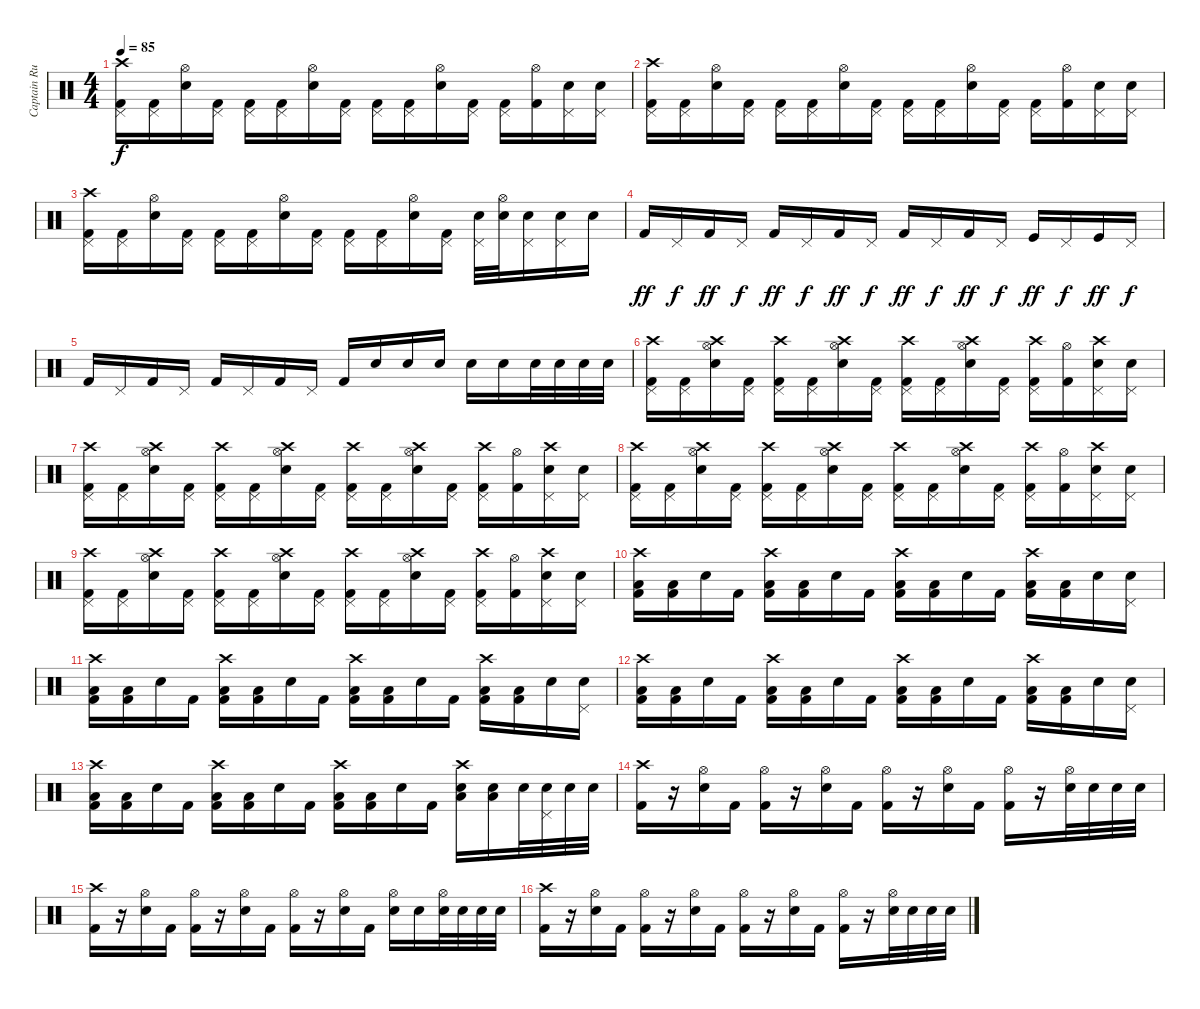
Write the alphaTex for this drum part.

\track ("Captain Rudabar/Rob Dog" "Captain Ru") {instrument percussion}
\staff {score}
\articulation defaults
\ts (4 4)
\tempo 85
\clef neutral
\ks c
("Crash high (hit)" "Pedal Hi-Hat (hit)" "Kick (hit) 2").16{dy f} ("Pedal Hi-Hat (hit)" "Kick (hit) 2").16 ("Hi-Hat (open)" "Electric Snare (hit)").16 ("Pedal Hi-Hat (hit)" "Kick (hit) 2").16 ("Pedal Hi-Hat (hit)" "Kick (hit) 2").16 ("Pedal Hi-Hat (hit)" "Kick (hit) 2").16 ("Hi-Hat (open)" "Electric Snare (hit)").16 ("Pedal Hi-Hat (hit)" "Kick (hit) 2").16 ("Pedal Hi-Hat (hit)" "Kick (hit) 2").16 ("Pedal Hi-Hat (hit)" "Kick (hit) 2").16 ("Hi-Hat (open)" "Electric Snare (hit)").16 ("Pedal Hi-Hat (hit)" "Kick (hit) 2").16 ("Pedal Hi-Hat (hit)" "Kick (hit) 2").16 ("Hi-Hat (open)" "Kick (hit) 2").16 ("Pedal Hi-Hat (hit)" "Electric Snare (hit)").16 ("Pedal Hi-Hat (hit)" "Electric Snare (hit)").16 |
("Crash high (hit)" "Pedal Hi-Hat (hit)" "Kick (hit) 2").16 ("Pedal Hi-Hat (hit)" "Kick (hit) 2").16 ("Hi-Hat (open)" "Electric Snare (hit)").16 ("Pedal Hi-Hat (hit)" "Kick (hit) 2").16 ("Pedal Hi-Hat (hit)" "Kick (hit) 2").16 ("Pedal Hi-Hat (hit)" "Kick (hit) 2").16 ("Hi-Hat (open)" "Electric Snare (hit)").16 ("Pedal Hi-Hat (hit)" "Kick (hit) 2").16 ("Pedal Hi-Hat (hit)" "Kick (hit) 2").16 ("Pedal Hi-Hat (hit)" "Kick (hit) 2").16 ("Hi-Hat (open)" "Electric Snare (hit)").16 ("Pedal Hi-Hat (hit)" "Kick (hit) 2").16 ("Pedal Hi-Hat (hit)" "Kick (hit) 2").16 ("Hi-Hat (open)" "Kick (hit) 2").16 ("Pedal Hi-Hat (hit)" "Electric Snare (hit)").16 ("Pedal Hi-Hat (hit)" "Electric Snare (hit)").16 |
("Crash high (hit)" "Pedal Hi-Hat (hit)" "Kick (hit) 2").16 ("Pedal Hi-Hat (hit)" "Kick (hit) 2").16 ("Hi-Hat (open)" "Electric Snare (hit)").16 ("Pedal Hi-Hat (hit)" "Kick (hit) 2").16 ("Pedal Hi-Hat (hit)" "Kick (hit) 2").16 ("Pedal Hi-Hat (hit)" "Kick (hit) 2").16 ("Hi-Hat (open)" "Electric Snare (hit)").16 ("Pedal Hi-Hat (hit)" "Kick (hit) 2").16 ("Pedal Hi-Hat (hit)" "Kick (hit) 2").16 ("Pedal Hi-Hat (hit)" "Kick (hit) 2").16 ("Hi-Hat (open)" "Electric Snare (hit)").16 ("Pedal Hi-Hat (hit)" "Kick (hit) 2").16 ("Pedal Hi-Hat (hit)" "Electric Snare (hit)").32 ("Hi-Hat (open)" "Electric Snare (hit)").32 ("Pedal Hi-Hat (hit)" "Electric Snare (hit)").16 ("Pedal Hi-Hat (hit)" "Electric Snare (hit)").16 "Electric Snare (hit)".16 |
"Kick (hit) 2".16{dy ff} "Pedal Hi-Hat (hit)".16{dy f} "Kick (hit) 2".16{dy ff} "Pedal Hi-Hat (hit)".16{dy f} "Kick (hit) 2".16{dy ff} "Pedal Hi-Hat (hit)".16{dy f} "Kick (hit) 2".16{dy ff} "Pedal Hi-Hat (hit)".16{dy f} "Kick (hit) 2".16{dy ff} "Pedal Hi-Hat (hit)".16{dy f} "Kick (hit) 2".16{dy ff} "Pedal Hi-Hat (hit)".16{dy f} "Kick (hit)".16{dy ff} "Pedal Hi-Hat (hit)".16{dy f} "Kick (hit)".16{dy ff} "Pedal Hi-Hat (hit)".16{dy f} |
"Kick (hit) 2".16 "Pedal Hi-Hat (hit)".16 "Kick (hit) 2".16 "Pedal Hi-Hat (hit)".16 "Kick (hit) 2".16 "Pedal Hi-Hat (hit)".16 "Kick (hit) 2".16 "Pedal Hi-Hat (hit)".16 "Kick (hit) 2".16 "Electric Snare (hit)".16 "Electric Snare (hit)".16 "Electric Snare (hit)".16 "Electric Snare (hit)".16 "Electric Snare (hit)".16 "Electric Snare (hit)".32 "Electric Snare (hit)".32 "Electric Snare (hit)".32 "Electric Snare (hit)".32 |
("Crash high (hit)" "Pedal Hi-Hat (hit)" "Kick (hit) 2").16 ("Pedal Hi-Hat (hit)" "Kick (hit) 2").16 ("Crash high (hit)" "Hi-Hat (open)" "Electric Snare (hit)").16 ("Pedal Hi-Hat (hit)" "Kick (hit) 2").16 ("Crash high (hit)" "Pedal Hi-Hat (hit)" "Kick (hit) 2").16 ("Pedal Hi-Hat (hit)" "Kick (hit) 2").16 ("Crash high (hit)" "Hi-Hat (open)" "Electric Snare (hit)").16 ("Pedal Hi-Hat (hit)" "Kick (hit) 2").16 ("Crash high (hit)" "Pedal Hi-Hat (hit)" "Kick (hit) 2").16 ("Pedal Hi-Hat (hit)" "Kick (hit) 2").16 ("Crash high (hit)" "Hi-Hat (open)" "Electric Snare (hit)").16 ("Pedal Hi-Hat (hit)" "Kick (hit) 2").16 ("Crash high (hit)" "Pedal Hi-Hat (hit)" "Kick (hit) 2").16 ("Hi-Hat (open)" "Kick (hit) 2").16 ("Crash high (hit)" "Pedal Hi-Hat (hit)" "Electric Snare (hit)").16 ("Pedal Hi-Hat (hit)" "Electric Snare (hit)").16 |
("Crash high (hit)" "Pedal Hi-Hat (hit)" "Kick (hit) 2").16 ("Pedal Hi-Hat (hit)" "Kick (hit) 2").16 ("Crash high (hit)" "Hi-Hat (open)" "Electric Snare (hit)").16 ("Pedal Hi-Hat (hit)" "Kick (hit) 2").16 ("Crash high (hit)" "Pedal Hi-Hat (hit)" "Kick (hit) 2").16 ("Pedal Hi-Hat (hit)" "Kick (hit) 2").16 ("Crash high (hit)" "Hi-Hat (open)" "Electric Snare (hit)").16 ("Pedal Hi-Hat (hit)" "Kick (hit) 2").16 ("Crash high (hit)" "Pedal Hi-Hat (hit)" "Kick (hit) 2").16 ("Pedal Hi-Hat (hit)" "Kick (hit) 2").16 ("Crash high (hit)" "Hi-Hat (open)" "Electric Snare (hit)").16 ("Pedal Hi-Hat (hit)" "Kick (hit) 2").16 ("Crash high (hit)" "Pedal Hi-Hat (hit)" "Kick (hit) 2").16 ("Hi-Hat (open)" "Kick (hit) 2").16 ("Crash high (hit)" "Pedal Hi-Hat (hit)" "Electric Snare (hit)").16 ("Pedal Hi-Hat (hit)" "Electric Snare (hit)").16 |
("Crash high (hit)" "Pedal Hi-Hat (hit)" "Kick (hit) 2").16 ("Pedal Hi-Hat (hit)" "Kick (hit) 2").16 ("Crash high (hit)" "Hi-Hat (open)" "Electric Snare (hit)").16 ("Pedal Hi-Hat (hit)" "Kick (hit) 2").16 ("Crash high (hit)" "Pedal Hi-Hat (hit)" "Kick (hit) 2").16 ("Pedal Hi-Hat (hit)" "Kick (hit) 2").16 ("Crash high (hit)" "Hi-Hat (open)" "Electric Snare (hit)").16 ("Pedal Hi-Hat (hit)" "Kick (hit) 2").16 ("Crash high (hit)" "Pedal Hi-Hat (hit)" "Kick (hit) 2").16 ("Pedal Hi-Hat (hit)" "Kick (hit) 2").16 ("Crash high (hit)" "Hi-Hat (open)" "Electric Snare (hit)").16 ("Pedal Hi-Hat (hit)" "Kick (hit) 2").16 ("Crash high (hit)" "Pedal Hi-Hat (hit)" "Kick (hit) 2").16 ("Hi-Hat (open)" "Kick (hit) 2").16 ("Crash high (hit)" "Pedal Hi-Hat (hit)" "Electric Snare (hit)").16 ("Pedal Hi-Hat (hit)" "Electric Snare (hit)").16 |
("Crash high (hit)" "Pedal Hi-Hat (hit)" "Kick (hit) 2").16 ("Pedal Hi-Hat (hit)" "Kick (hit) 2").16 ("Crash high (hit)" "Hi-Hat (open)" "Electric Snare (hit)").16 ("Pedal Hi-Hat (hit)" "Kick (hit) 2").16 ("Crash high (hit)" "Pedal Hi-Hat (hit)" "Kick (hit) 2").16 ("Pedal Hi-Hat (hit)" "Kick (hit) 2").16 ("Crash high (hit)" "Hi-Hat (open)" "Electric Snare (hit)").16 ("Pedal Hi-Hat (hit)" "Kick (hit) 2").16 ("Crash high (hit)" "Pedal Hi-Hat (hit)" "Kick (hit) 2").16 ("Pedal Hi-Hat (hit)" "Kick (hit) 2").16 ("Crash high (hit)" "Hi-Hat (open)" "Electric Snare (hit)").16 ("Pedal Hi-Hat (hit)" "Kick (hit) 2").16 ("Crash high (hit)" "Pedal Hi-Hat (hit)" "Kick (hit) 2").16 ("Hi-Hat (open)" "Kick (hit) 2").16 ("Crash high (hit)" "Pedal Hi-Hat (hit)" "Electric Snare (hit)").16 ("Pedal Hi-Hat (hit)" "Electric Snare (hit)").16 |
("Crash high (hit)" "Low Tom (hit)" "Kick (hit) 2").16 ("Low Tom (hit)" "Kick (hit) 2").16 "Electric Snare (hit)".16 "Kick (hit) 2".16 ("Crash high (hit)" "Low Tom (hit)" "Kick (hit) 2").16 ("Low Tom (hit)" "Kick (hit) 2").16 "Electric Snare (hit)".16 "Kick (hit) 2".16 ("Crash high (hit)" "Low Tom (hit)" "Kick (hit) 2").16 ("Low Tom (hit)" "Kick (hit) 2").16 "Electric Snare (hit)".16 "Kick (hit) 2".16 ("Crash high (hit)" "Low Tom (hit)" "Kick (hit) 2").16 ("Low Tom (hit)" "Kick (hit) 2").16 "Electric Snare (hit)".16 ("Pedal Hi-Hat (hit)" "Electric Snare (hit)").16 |
("Crash high (hit)" "Low Tom (hit)" "Kick (hit) 2").16 ("Low Tom (hit)" "Kick (hit) 2").16 "Electric Snare (hit)".16 "Kick (hit) 2".16 ("Crash high (hit)" "Low Tom (hit)" "Kick (hit) 2").16 ("Low Tom (hit)" "Kick (hit) 2").16 "Electric Snare (hit)".16 "Kick (hit) 2".16 ("Crash high (hit)" "Low Tom (hit)" "Kick (hit) 2").16 ("Low Tom (hit)" "Kick (hit) 2").16 "Electric Snare (hit)".16 "Kick (hit) 2".16 ("Crash high (hit)" "Low Tom (hit)" "Kick (hit) 2").16 ("Low Tom (hit)" "Kick (hit) 2").16 "Electric Snare (hit)".16 ("Pedal Hi-Hat (hit)" "Electric Snare (hit)").16 |
("Crash high (hit)" "Low Tom (hit)" "Kick (hit) 2").16 ("Low Tom (hit)" "Kick (hit) 2").16 "Electric Snare (hit)".16 "Kick (hit) 2".16 ("Crash high (hit)" "Low Tom (hit)" "Kick (hit) 2").16 ("Low Tom (hit)" "Kick (hit) 2").16 "Electric Snare (hit)".16 "Kick (hit) 2".16 ("Crash high (hit)" "Low Tom (hit)" "Kick (hit) 2").16 ("Low Tom (hit)" "Kick (hit) 2").16 "Electric Snare (hit)".16 "Kick (hit) 2".16 ("Crash high (hit)" "Low Tom (hit)" "Kick (hit) 2").16 ("Low Tom (hit)" "Kick (hit) 2").16 "Electric Snare (hit)".16 ("Pedal Hi-Hat (hit)" "Electric Snare (hit)").16 |
("Crash high (hit)" "Low Tom (hit)" "Kick (hit) 2").16 ("Low Tom (hit)" "Kick (hit) 2").16 "Electric Snare (hit)".16 "Kick (hit) 2".16 ("Crash high (hit)" "Low Tom (hit)" "Kick (hit) 2").16 ("Low Tom (hit)" "Kick (hit) 2").16 "Electric Snare (hit)".16 "Kick (hit) 2".16 ("Crash high (hit)" "Low Tom (hit)" "Kick (hit) 2").16 ("Low Tom (hit)" "Kick (hit) 2").16 "Electric Snare (hit)".16 "Kick (hit) 2".16 ("Crash high (hit)" "Low Tom (hit)" "Electric Snare (hit)").16 ("Low Tom (hit)" "Electric Snare (hit)").16 "Electric Snare (hit)".32 ("Pedal Hi-Hat (hit)" "Electric Snare (hit)").32 "Electric Snare (hit)".32 "Electric Snare (hit)".32 |
("Crash high (hit)" "Kick (hit) 2").16 r.16 ("Hi-Hat (open)" "Electric Snare (hit)").16 "Kick (hit) 2".16 ("Hi-Hat (open)" "Kick (hit) 2").16 r.16 ("Hi-Hat (open)" "Electric Snare (hit)").16 "Kick (hit) 2".16 ("Hi-Hat (open)" "Kick (hit) 2").16 r.16 ("Hi-Hat (open)" "Electric Snare (hit)").16 "Kick (hit) 2".16 ("Hi-Hat (open)" "Kick (hit) 2").16 r.16 ("Hi-Hat (open)" "Electric Snare (hit)").32 "Electric Snare (hit)".32 "Electric Snare (hit)".32 "Electric Snare (hit)".32 |
("Crash high (hit)" "Kick (hit) 2").16 r.16 ("Hi-Hat (open)" "Electric Snare (hit)").16 "Kick (hit) 2".16 ("Hi-Hat (open)" "Kick (hit) 2").16 r.16 ("Hi-Hat (open)" "Electric Snare (hit)").16 "Kick (hit) 2".16 ("Hi-Hat (open)" "Kick (hit) 2").16 r.16 ("Hi-Hat (open)" "Electric Snare (hit)").16 "Kick (hit) 2".16 ("Hi-Hat (open)" "Electric Snare (hit)").16 "Electric Snare (hit)".16 ("Hi-Hat (open)" "Electric Snare (hit)").32 "Electric Snare (hit)".32 "Electric Snare (hit)".32 "Electric Snare (hit)".32 |
("Crash high (hit)" "Kick (hit) 2").16 r.16 ("Hi-Hat (open)" "Electric Snare (hit)").16 "Kick (hit) 2".16 ("Hi-Hat (open)" "Kick (hit) 2").16 r.16 ("Hi-Hat (open)" "Electric Snare (hit)").16 "Kick (hit) 2".16 ("Hi-Hat (open)" "Kick (hit) 2").16 r.16 ("Hi-Hat (open)" "Electric Snare (hit)").16 "Kick (hit) 2".16 ("Hi-Hat (open)" "Kick (hit) 2").16 r.16 ("Hi-Hat (open)" "Electric Snare (hit)").32 "Electric Snare (hit)".32 "Electric Snare (hit)".32 "Electric Snare (hit)".32
